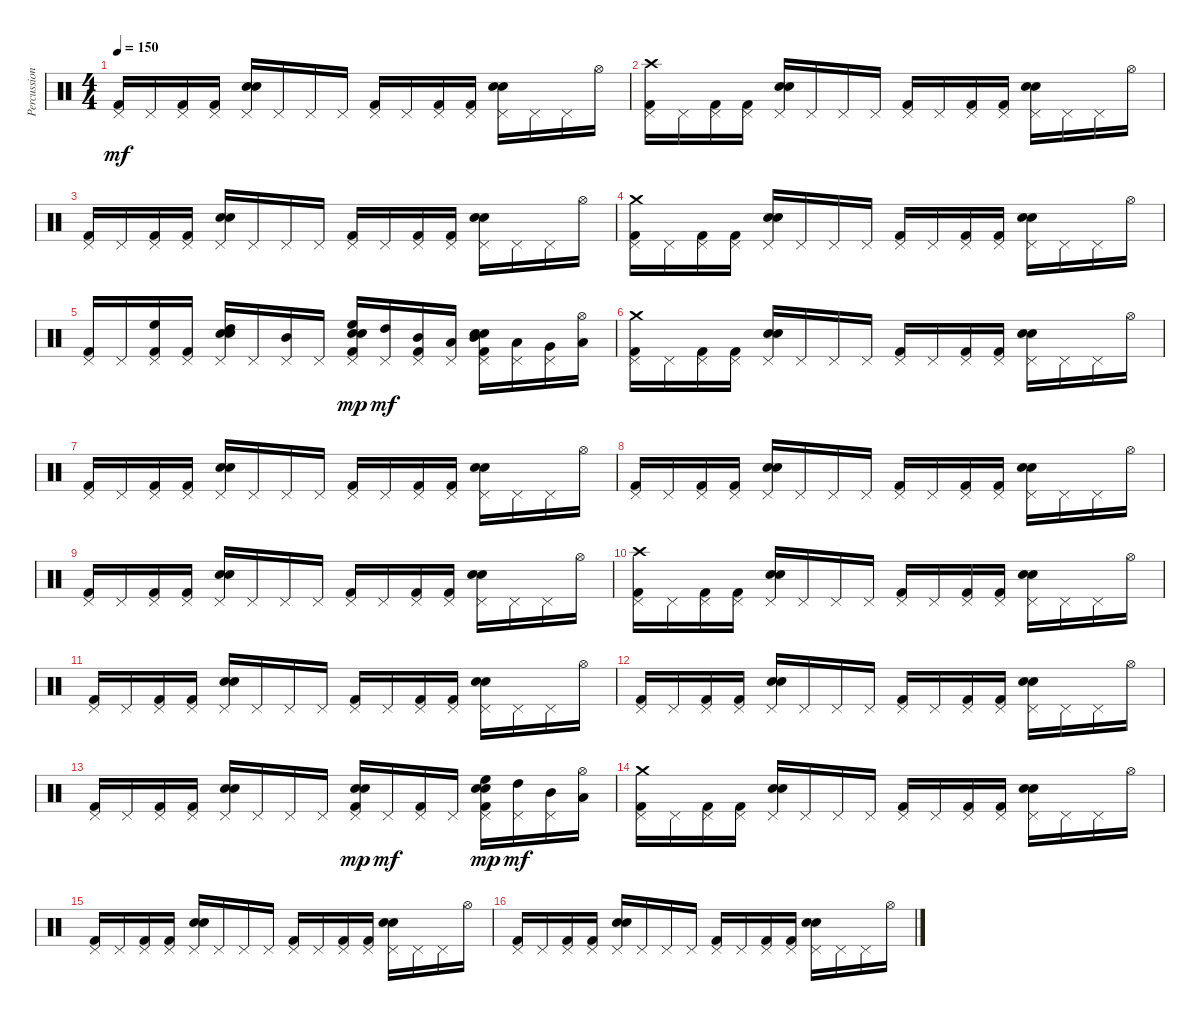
\track ("Percussion (Power Kit)" "Percussion") {instrument percussion}
\staff {score}
\articulation defaults
\ts (4 4)
\tempo 150
\clef neutral
\ks c
("Kick (hit) 2" "Pedal Hi-Hat (hit)").16{dy mf} "Pedal Hi-Hat (hit)".16 ("Pedal Hi-Hat (hit)" "Kick (hit) 2").16 ("Pedal Hi-Hat (hit)" "Kick (hit) 2").16 ("Electric Snare (hit)" "Snare (hit) 2" "Pedal Hi-Hat (hit)").16 "Pedal Hi-Hat (hit)".16 "Pedal Hi-Hat (hit)".16 "Pedal Hi-Hat (hit)".16 ("Kick (hit) 2" "Pedal Hi-Hat (hit)").16 "Pedal Hi-Hat (hit)".16 ("Pedal Hi-Hat (hit)" "Kick (hit) 2").16 ("Pedal Hi-Hat (hit)" "Kick (hit) 2").16 ("Electric Snare (hit)" "Snare (hit) 2" "Pedal Hi-Hat (hit)").16 "Pedal Hi-Hat (hit)".16 "Pedal Hi-Hat (hit)".16 "Hi-Hat (open)".16 |
("Kick (hit) 2" "Pedal Hi-Hat (hit)" "Crash high (hit)").16 "Pedal Hi-Hat (hit)".16 ("Pedal Hi-Hat (hit)" "Kick (hit) 2").16 ("Pedal Hi-Hat (hit)" "Kick (hit) 2").16 ("Electric Snare (hit)" "Snare (hit) 2" "Pedal Hi-Hat (hit)").16 "Pedal Hi-Hat (hit)".16 "Pedal Hi-Hat (hit)".16 "Pedal Hi-Hat (hit)".16 ("Kick (hit) 2" "Pedal Hi-Hat (hit)").16 "Pedal Hi-Hat (hit)".16 ("Pedal Hi-Hat (hit)" "Kick (hit) 2").16 ("Pedal Hi-Hat (hit)" "Kick (hit) 2").16 ("Electric Snare (hit)" "Snare (hit) 2" "Pedal Hi-Hat (hit)").16 "Pedal Hi-Hat (hit)".16 "Pedal Hi-Hat (hit)".16 "Hi-Hat (open)".16 |
("Kick (hit) 2" "Pedal Hi-Hat (hit)").16 "Pedal Hi-Hat (hit)".16 ("Pedal Hi-Hat (hit)" "Kick (hit) 2").16 ("Pedal Hi-Hat (hit)" "Kick (hit) 2").16 ("Electric Snare (hit)" "Snare (hit) 2" "Pedal Hi-Hat (hit)").16 "Pedal Hi-Hat (hit)".16 "Pedal Hi-Hat (hit)".16 "Pedal Hi-Hat (hit)".16 ("Kick (hit) 2" "Pedal Hi-Hat (hit)").16 "Pedal Hi-Hat (hit)".16 ("Pedal Hi-Hat (hit)" "Kick (hit) 2").16 ("Pedal Hi-Hat (hit)" "Kick (hit) 2").16 ("Electric Snare (hit)" "Snare (hit) 2" "Pedal Hi-Hat (hit)").16 "Pedal Hi-Hat (hit)".16 "Pedal Hi-Hat (hit)".16 "Hi-Hat (open)".16 |
("Kick (hit) 2" "Pedal Hi-Hat (hit)" "Crash medium (hit)").16 "Pedal Hi-Hat (hit)".16 ("Pedal Hi-Hat (hit)" "Kick (hit) 2").16 ("Pedal Hi-Hat (hit)" "Kick (hit) 2").16 ("Electric Snare (hit)" "Snare (hit) 2" "Pedal Hi-Hat (hit)").16 "Pedal Hi-Hat (hit)".16 "Pedal Hi-Hat (hit)".16 "Pedal Hi-Hat (hit)".16 ("Kick (hit) 2" "Pedal Hi-Hat (hit)").16 "Pedal Hi-Hat (hit)".16 ("Pedal Hi-Hat (hit)" "Kick (hit) 2").16 ("Pedal Hi-Hat (hit)" "Kick (hit) 2").16 ("Electric Snare (hit)" "Snare (hit) 2" "Pedal Hi-Hat (hit)").16 "Pedal Hi-Hat (hit)".16 "Pedal Hi-Hat (hit)".16 "Hi-Hat (open)".16 |
("Kick (hit) 2" "Pedal Hi-Hat (hit)").16 "Pedal Hi-Hat (hit)".16 ("Pedal Hi-Hat (hit)" "High Floor Tom (hit)" "Kick (hit) 2").16 ("Pedal Hi-Hat (hit)" "Kick (hit) 2").16 ("Electric Snare (hit)" "Snare (hit) 2" "Pedal Hi-Hat (hit)" "High Tom (hit)").16 "Pedal Hi-Hat (hit)".16 ("Pedal Hi-Hat (hit)" "Mid Tom (hit)").16 "Pedal Hi-Hat (hit)".16 ("Kick (hit) 2" "Pedal Hi-Hat (hit)" "High Floor Tom (hit)" "Electric Snare (hit)" "Snare (hit) 2").16{dy mp} ("Pedal Hi-Hat (hit)" "High Tom (hit)").16{dy mf} ("Pedal Hi-Hat (hit)" "Mid Tom (hit)" "Kick (hit) 2").16 ("Pedal Hi-Hat (hit)" "Low Tom (hit)").16 ("Electric Snare (hit)" "Snare (hit) 2" "Pedal Hi-Hat (hit)" "Mid Tom (hit)" "Kick (hit) 2").16 ("Pedal Hi-Hat (hit)" "Low Tom (hit)").16 ("Pedal Hi-Hat (hit)" "Very Low Tom (hit)").16 ("Hi-Hat (open)" "Low Floor Tom (hit)").16 |
("Kick (hit) 2" "Pedal Hi-Hat (hit)" "Crash medium (hit)").16 "Pedal Hi-Hat (hit)".16 ("Pedal Hi-Hat (hit)" "Kick (hit) 2").16 ("Pedal Hi-Hat (hit)" "Kick (hit) 2").16 ("Electric Snare (hit)" "Snare (hit) 2" "Pedal Hi-Hat (hit)").16 "Pedal Hi-Hat (hit)".16 "Pedal Hi-Hat (hit)".16 "Pedal Hi-Hat (hit)".16 ("Kick (hit) 2" "Pedal Hi-Hat (hit)").16 "Pedal Hi-Hat (hit)".16 ("Pedal Hi-Hat (hit)" "Kick (hit) 2").16 ("Pedal Hi-Hat (hit)" "Kick (hit) 2").16 ("Electric Snare (hit)" "Snare (hit) 2" "Pedal Hi-Hat (hit)").16 "Pedal Hi-Hat (hit)".16 "Pedal Hi-Hat (hit)".16 "Hi-Hat (open)".16 |
("Kick (hit) 2" "Pedal Hi-Hat (hit)").16 "Pedal Hi-Hat (hit)".16 ("Pedal Hi-Hat (hit)" "Kick (hit) 2").16 ("Pedal Hi-Hat (hit)" "Kick (hit) 2").16 ("Electric Snare (hit)" "Snare (hit) 2" "Pedal Hi-Hat (hit)").16 "Pedal Hi-Hat (hit)".16 "Pedal Hi-Hat (hit)".16 "Pedal Hi-Hat (hit)".16 ("Kick (hit) 2" "Pedal Hi-Hat (hit)").16 "Pedal Hi-Hat (hit)".16 ("Pedal Hi-Hat (hit)" "Kick (hit) 2").16 ("Pedal Hi-Hat (hit)" "Kick (hit) 2").16 ("Electric Snare (hit)" "Snare (hit) 2" "Pedal Hi-Hat (hit)").16 "Pedal Hi-Hat (hit)".16 "Pedal Hi-Hat (hit)".16 "Hi-Hat (open)".16 |
("Kick (hit) 2" "Pedal Hi-Hat (hit)").16 "Pedal Hi-Hat (hit)".16 ("Pedal Hi-Hat (hit)" "Kick (hit) 2").16 ("Pedal Hi-Hat (hit)" "Kick (hit) 2").16 ("Electric Snare (hit)" "Snare (hit) 2" "Pedal Hi-Hat (hit)").16 "Pedal Hi-Hat (hit)".16 "Pedal Hi-Hat (hit)".16 "Pedal Hi-Hat (hit)".16 ("Kick (hit) 2" "Pedal Hi-Hat (hit)").16 "Pedal Hi-Hat (hit)".16 ("Pedal Hi-Hat (hit)" "Kick (hit) 2").16 ("Pedal Hi-Hat (hit)" "Kick (hit) 2").16 ("Electric Snare (hit)" "Snare (hit) 2" "Pedal Hi-Hat (hit)").16 "Pedal Hi-Hat (hit)".16 "Pedal Hi-Hat (hit)".16 "Hi-Hat (open)".16 |
("Kick (hit) 2" "Pedal Hi-Hat (hit)").16 "Pedal Hi-Hat (hit)".16 ("Pedal Hi-Hat (hit)" "Kick (hit) 2").16 ("Pedal Hi-Hat (hit)" "Kick (hit) 2").16 ("Electric Snare (hit)" "Snare (hit) 2" "Pedal Hi-Hat (hit)").16 "Pedal Hi-Hat (hit)".16 "Pedal Hi-Hat (hit)".16 "Pedal Hi-Hat (hit)".16 ("Kick (hit) 2" "Pedal Hi-Hat (hit)").16 "Pedal Hi-Hat (hit)".16 ("Pedal Hi-Hat (hit)" "Kick (hit) 2").16 ("Pedal Hi-Hat (hit)" "Kick (hit) 2").16 ("Electric Snare (hit)" "Snare (hit) 2" "Pedal Hi-Hat (hit)").16 "Pedal Hi-Hat (hit)".16 "Pedal Hi-Hat (hit)".16 "Hi-Hat (open)".16 |
("Kick (hit) 2" "Pedal Hi-Hat (hit)" "Crash high (hit)").16 "Pedal Hi-Hat (hit)".16 ("Pedal Hi-Hat (hit)" "Kick (hit) 2").16 ("Pedal Hi-Hat (hit)" "Kick (hit) 2").16 ("Electric Snare (hit)" "Snare (hit) 2" "Pedal Hi-Hat (hit)").16 "Pedal Hi-Hat (hit)".16 "Pedal Hi-Hat (hit)".16 "Pedal Hi-Hat (hit)".16 ("Kick (hit) 2" "Pedal Hi-Hat (hit)").16 "Pedal Hi-Hat (hit)".16 ("Pedal Hi-Hat (hit)" "Kick (hit) 2").16 ("Pedal Hi-Hat (hit)" "Kick (hit) 2").16 ("Electric Snare (hit)" "Snare (hit) 2" "Pedal Hi-Hat (hit)").16 "Pedal Hi-Hat (hit)".16 "Pedal Hi-Hat (hit)".16 "Hi-Hat (open)".16 |
("Kick (hit) 2" "Pedal Hi-Hat (hit)").16 "Pedal Hi-Hat (hit)".16 ("Pedal Hi-Hat (hit)" "Kick (hit) 2").16 ("Pedal Hi-Hat (hit)" "Kick (hit) 2").16 ("Electric Snare (hit)" "Snare (hit) 2" "Pedal Hi-Hat (hit)").16 "Pedal Hi-Hat (hit)".16 "Pedal Hi-Hat (hit)".16 "Pedal Hi-Hat (hit)".16 ("Kick (hit) 2" "Pedal Hi-Hat (hit)").16 "Pedal Hi-Hat (hit)".16 ("Pedal Hi-Hat (hit)" "Kick (hit) 2").16 ("Pedal Hi-Hat (hit)" "Kick (hit) 2").16 ("Electric Snare (hit)" "Snare (hit) 2" "Pedal Hi-Hat (hit)").16 "Pedal Hi-Hat (hit)".16 "Pedal Hi-Hat (hit)".16 "Hi-Hat (open)".16 |
("Kick (hit) 2" "Pedal Hi-Hat (hit)").16 "Pedal Hi-Hat (hit)".16 ("Pedal Hi-Hat (hit)" "Kick (hit) 2").16 ("Pedal Hi-Hat (hit)" "Kick (hit) 2").16 ("Electric Snare (hit)" "Snare (hit) 2" "Pedal Hi-Hat (hit)").16 "Pedal Hi-Hat (hit)".16 "Pedal Hi-Hat (hit)".16 "Pedal Hi-Hat (hit)".16 ("Kick (hit) 2" "Pedal Hi-Hat (hit)").16 "Pedal Hi-Hat (hit)".16 ("Pedal Hi-Hat (hit)" "Kick (hit) 2").16 ("Pedal Hi-Hat (hit)" "Kick (hit) 2").16 ("Electric Snare (hit)" "Snare (hit) 2" "Pedal Hi-Hat (hit)").16 "Pedal Hi-Hat (hit)".16 "Pedal Hi-Hat (hit)".16 "Hi-Hat (open)".16 |
("Kick (hit) 2" "Pedal Hi-Hat (hit)").16 "Pedal Hi-Hat (hit)".16 ("Pedal Hi-Hat (hit)" "Kick (hit) 2").16 ("Pedal Hi-Hat (hit)" "Kick (hit) 2").16 ("Electric Snare (hit)" "Snare (hit) 2" "Pedal Hi-Hat (hit)").16 "Pedal Hi-Hat (hit)".16 "Pedal Hi-Hat (hit)".16 "Pedal Hi-Hat (hit)".16 ("Pedal Hi-Hat (hit)" "Electric Snare (hit)" "Kick (hit) 2" "Snare (hit) 2").16{dy mp} "Pedal Hi-Hat (hit)".16{dy mf} ("Pedal Hi-Hat (hit)" "Kick (hit) 2").16 "Pedal Hi-Hat (hit)".16 ("Pedal Hi-Hat (hit)" "Kick (hit) 2" "Electric Snare (hit)" "Snare (hit) 2" "High Floor Tom (hit)").16{dy mp} ("Pedal Hi-Hat (hit)" "High Tom (hit)").16{dy mf} ("Pedal Hi-Hat (hit)" "Mid Tom (hit)").16 ("Hi-Hat (open)" "Low Tom (hit)").16 |
("Kick (hit) 2" "Pedal Hi-Hat (hit)" "Crash medium (hit)").16 "Pedal Hi-Hat (hit)".16 ("Pedal Hi-Hat (hit)" "Kick (hit) 2").16 ("Pedal Hi-Hat (hit)" "Kick (hit) 2").16 ("Electric Snare (hit)" "Snare (hit) 2" "Pedal Hi-Hat (hit)").16 "Pedal Hi-Hat (hit)".16 "Pedal Hi-Hat (hit)".16 "Pedal Hi-Hat (hit)".16 ("Kick (hit) 2" "Pedal Hi-Hat (hit)").16 "Pedal Hi-Hat (hit)".16 ("Pedal Hi-Hat (hit)" "Kick (hit) 2").16 ("Pedal Hi-Hat (hit)" "Kick (hit) 2").16 ("Electric Snare (hit)" "Snare (hit) 2" "Pedal Hi-Hat (hit)").16 "Pedal Hi-Hat (hit)".16 "Pedal Hi-Hat (hit)".16 "Hi-Hat (open)".16 |
("Kick (hit) 2" "Pedal Hi-Hat (hit)").16 "Pedal Hi-Hat (hit)".16 ("Pedal Hi-Hat (hit)" "Kick (hit) 2").16 ("Pedal Hi-Hat (hit)" "Kick (hit) 2").16 ("Electric Snare (hit)" "Snare (hit) 2" "Pedal Hi-Hat (hit)").16 "Pedal Hi-Hat (hit)".16 "Pedal Hi-Hat (hit)".16 "Pedal Hi-Hat (hit)".16 ("Kick (hit) 2" "Pedal Hi-Hat (hit)").16 "Pedal Hi-Hat (hit)".16 ("Pedal Hi-Hat (hit)" "Kick (hit) 2").16 ("Pedal Hi-Hat (hit)" "Kick (hit) 2").16 ("Electric Snare (hit)" "Snare (hit) 2" "Pedal Hi-Hat (hit)").16 "Pedal Hi-Hat (hit)".16 "Pedal Hi-Hat (hit)".16 "Hi-Hat (open)".16 |
("Kick (hit) 2" "Pedal Hi-Hat (hit)").16 "Pedal Hi-Hat (hit)".16 ("Pedal Hi-Hat (hit)" "Kick (hit) 2").16 ("Pedal Hi-Hat (hit)" "Kick (hit) 2").16 ("Electric Snare (hit)" "Snare (hit) 2" "Pedal Hi-Hat (hit)").16 "Pedal Hi-Hat (hit)".16 "Pedal Hi-Hat (hit)".16 "Pedal Hi-Hat (hit)".16 ("Kick (hit) 2" "Pedal Hi-Hat (hit)").16 "Pedal Hi-Hat (hit)".16 ("Pedal Hi-Hat (hit)" "Kick (hit) 2").16 ("Pedal Hi-Hat (hit)" "Kick (hit) 2").16 ("Electric Snare (hit)" "Snare (hit) 2" "Pedal Hi-Hat (hit)").16 "Pedal Hi-Hat (hit)".16 "Pedal Hi-Hat (hit)".16 "Hi-Hat (open)".16
